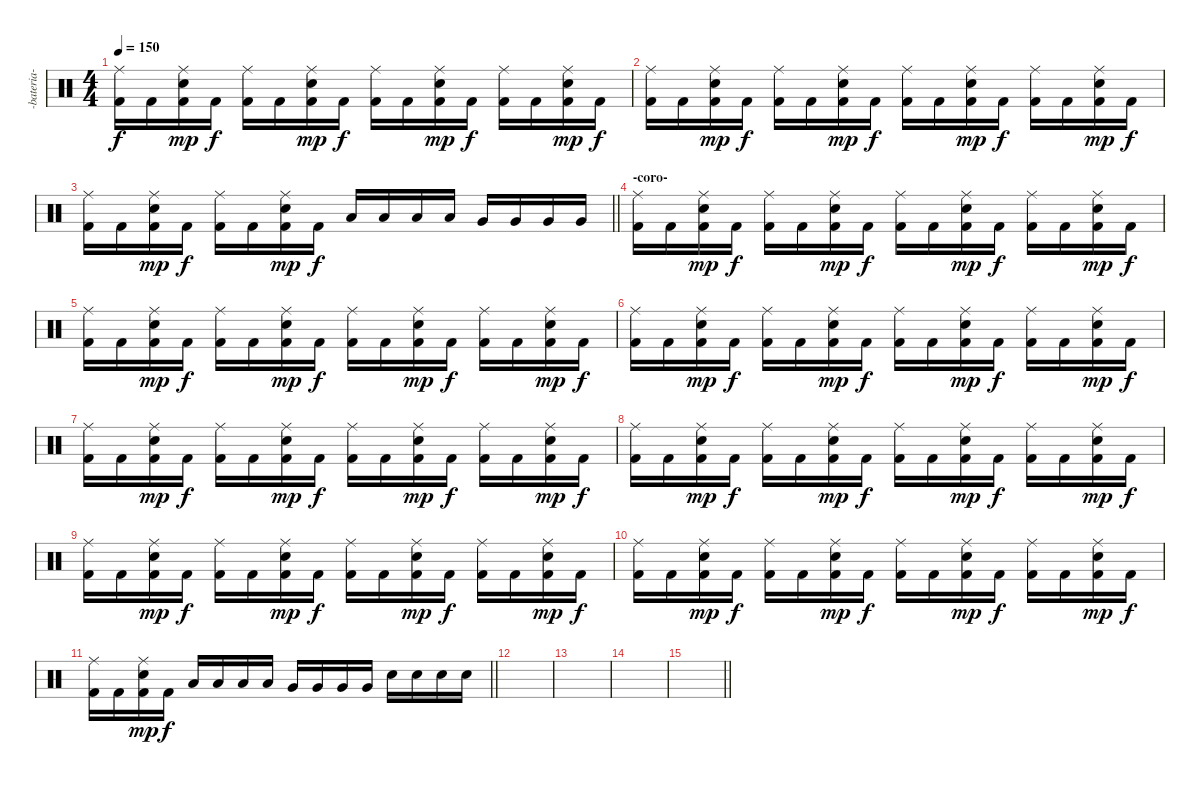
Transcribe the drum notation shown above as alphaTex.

\track ("-bateria-" "-bateria-") {instrument percussion}
\staff {score}
\articulation defaults
\ts (4 4)
\tempo 150
\clef neutral
\ks c
("Ride (middle)" "Kick (hit) 2").16{dy f} "Kick (hit) 2".16 ("Ride (middle)" "Electric Snare (hit)" "Kick (hit) 2").16{dy mp} "Kick (hit) 2".16{dy f} ("Ride (middle)" "Kick (hit) 2").16 "Kick (hit) 2".16 ("Ride (middle)" "Electric Snare (hit)" "Kick (hit) 2").16{dy mp} "Kick (hit) 2".16{dy f} ("Ride (middle)" "Kick (hit) 2").16 "Kick (hit) 2".16 ("Ride (middle)" "Electric Snare (hit)" "Kick (hit) 2").16{dy mp} "Kick (hit) 2".16{dy f} ("Ride (middle)" "Kick (hit) 2").16 "Kick (hit) 2".16 ("Ride (middle)" "Electric Snare (hit)" "Kick (hit) 2").16{dy mp} "Kick (hit) 2".16{dy f} |
("Ride (middle)" "Kick (hit) 2").16 "Kick (hit) 2".16 ("Ride (middle)" "Electric Snare (hit)" "Kick (hit) 2").16{dy mp} "Kick (hit) 2".16{dy f} ("Ride (middle)" "Kick (hit) 2").16 "Kick (hit) 2".16 ("Ride (middle)" "Electric Snare (hit)" "Kick (hit) 2").16{dy mp} "Kick (hit) 2".16{dy f} ("Ride (middle)" "Kick (hit) 2").16 "Kick (hit) 2".16 ("Ride (middle)" "Electric Snare (hit)" "Kick (hit) 2").16{dy mp} "Kick (hit) 2".16{dy f} ("Ride (middle)" "Kick (hit) 2").16 "Kick (hit) 2".16 ("Ride (middle)" "Electric Snare (hit)" "Kick (hit) 2").16{dy mp} "Kick (hit) 2".16{dy f} |
\barLineRight lightlight
("Ride (middle)" "Kick (hit) 2").16 "Kick (hit) 2".16 ("Ride (middle)" "Electric Snare (hit)" "Kick (hit) 2").16{dy mp} "Kick (hit) 2".16{dy f} ("Ride (middle)" "Kick (hit) 2").16 "Kick (hit) 2".16 ("Ride (middle)" "Electric Snare (hit)" "Kick (hit) 2").16{dy mp} "Kick (hit) 2".16{dy f} "Low Tom (hit)".16 "Low Tom (hit)".16 "Low Tom (hit)".16 "Low Tom (hit)".16 "Very Low Tom (hit)".16 "Very Low Tom (hit)".16 "Very Low Tom (hit)".16 "Very Low Tom (hit)".16 |
\section ("" "-coro-")
("Ride (middle)" "Kick (hit) 2").16 "Kick (hit) 2".16 ("Ride (middle)" "Electric Snare (hit)" "Kick (hit) 2").16{dy mp} "Kick (hit) 2".16{dy f} ("Ride (middle)" "Kick (hit) 2").16 "Kick (hit) 2".16 ("Ride (middle)" "Electric Snare (hit)" "Kick (hit) 2").16{dy mp} "Kick (hit) 2".16{dy f} ("Ride (middle)" "Kick (hit) 2").16 "Kick (hit) 2".16 ("Ride (middle)" "Electric Snare (hit)" "Kick (hit) 2").16{dy mp} "Kick (hit) 2".16{dy f} ("Ride (middle)" "Kick (hit) 2").16 "Kick (hit) 2".16 ("Ride (middle)" "Electric Snare (hit)" "Kick (hit) 2").16{dy mp} "Kick (hit) 2".16{dy f} |
("Ride (middle)" "Kick (hit) 2").16 "Kick (hit) 2".16 ("Ride (middle)" "Electric Snare (hit)" "Kick (hit) 2").16{dy mp} "Kick (hit) 2".16{dy f} ("Ride (middle)" "Kick (hit) 2").16 "Kick (hit) 2".16 ("Ride (middle)" "Electric Snare (hit)" "Kick (hit) 2").16{dy mp} "Kick (hit) 2".16{dy f} ("Ride (middle)" "Kick (hit) 2").16 "Kick (hit) 2".16 ("Ride (middle)" "Electric Snare (hit)" "Kick (hit) 2").16{dy mp} "Kick (hit) 2".16{dy f} ("Ride (middle)" "Kick (hit) 2").16 "Kick (hit) 2".16 ("Ride (middle)" "Electric Snare (hit)" "Kick (hit) 2").16{dy mp} "Kick (hit) 2".16{dy f} |
("Ride (middle)" "Kick (hit) 2").16 "Kick (hit) 2".16 ("Ride (middle)" "Electric Snare (hit)" "Kick (hit) 2").16{dy mp} "Kick (hit) 2".16{dy f} ("Ride (middle)" "Kick (hit) 2").16 "Kick (hit) 2".16 ("Ride (middle)" "Electric Snare (hit)" "Kick (hit) 2").16{dy mp} "Kick (hit) 2".16{dy f} ("Ride (middle)" "Kick (hit) 2").16 "Kick (hit) 2".16 ("Ride (middle)" "Electric Snare (hit)" "Kick (hit) 2").16{dy mp} "Kick (hit) 2".16{dy f} ("Ride (middle)" "Kick (hit) 2").16 "Kick (hit) 2".16 ("Ride (middle)" "Electric Snare (hit)" "Kick (hit) 2").16{dy mp} "Kick (hit) 2".16{dy f} |
("Ride (middle)" "Kick (hit) 2").16 "Kick (hit) 2".16 ("Ride (middle)" "Electric Snare (hit)" "Kick (hit) 2").16{dy mp} "Kick (hit) 2".16{dy f} ("Ride (middle)" "Kick (hit) 2").16 "Kick (hit) 2".16 ("Ride (middle)" "Electric Snare (hit)" "Kick (hit) 2").16{dy mp} "Kick (hit) 2".16{dy f} ("Ride (middle)" "Kick (hit) 2").16 "Kick (hit) 2".16 ("Ride (middle)" "Electric Snare (hit)" "Kick (hit) 2").16{dy mp} "Kick (hit) 2".16{dy f} ("Ride (middle)" "Kick (hit) 2").16 "Kick (hit) 2".16 ("Ride (middle)" "Electric Snare (hit)" "Kick (hit) 2").16{dy mp} "Kick (hit) 2".16{dy f} |
("Ride (middle)" "Kick (hit) 2").16 "Kick (hit) 2".16 ("Ride (middle)" "Electric Snare (hit)" "Kick (hit) 2").16{dy mp} "Kick (hit) 2".16{dy f} ("Ride (middle)" "Kick (hit) 2").16 "Kick (hit) 2".16 ("Ride (middle)" "Electric Snare (hit)" "Kick (hit) 2").16{dy mp} "Kick (hit) 2".16{dy f} ("Ride (middle)" "Kick (hit) 2").16 "Kick (hit) 2".16 ("Ride (middle)" "Electric Snare (hit)" "Kick (hit) 2").16{dy mp} "Kick (hit) 2".16{dy f} ("Ride (middle)" "Kick (hit) 2").16 "Kick (hit) 2".16 ("Ride (middle)" "Electric Snare (hit)" "Kick (hit) 2").16{dy mp} "Kick (hit) 2".16{dy f} |
("Ride (middle)" "Kick (hit) 2").16 "Kick (hit) 2".16 ("Ride (middle)" "Electric Snare (hit)" "Kick (hit) 2").16{dy mp} "Kick (hit) 2".16{dy f} ("Ride (middle)" "Kick (hit) 2").16 "Kick (hit) 2".16 ("Ride (middle)" "Electric Snare (hit)" "Kick (hit) 2").16{dy mp} "Kick (hit) 2".16{dy f} ("Ride (middle)" "Kick (hit) 2").16 "Kick (hit) 2".16 ("Ride (middle)" "Electric Snare (hit)" "Kick (hit) 2").16{dy mp} "Kick (hit) 2".16{dy f} ("Ride (middle)" "Kick (hit) 2").16 "Kick (hit) 2".16 ("Ride (middle)" "Electric Snare (hit)" "Kick (hit) 2").16{dy mp} "Kick (hit) 2".16{dy f} |
("Ride (middle)" "Kick (hit) 2").16 "Kick (hit) 2".16 ("Ride (middle)" "Electric Snare (hit)" "Kick (hit) 2").16{dy mp} "Kick (hit) 2".16{dy f} ("Ride (middle)" "Kick (hit) 2").16 "Kick (hit) 2".16 ("Ride (middle)" "Electric Snare (hit)" "Kick (hit) 2").16{dy mp} "Kick (hit) 2".16{dy f} ("Ride (middle)" "Kick (hit) 2").16 "Kick (hit) 2".16 ("Ride (middle)" "Electric Snare (hit)" "Kick (hit) 2").16{dy mp} "Kick (hit) 2".16{dy f} ("Ride (middle)" "Kick (hit) 2").16 "Kick (hit) 2".16 ("Ride (middle)" "Electric Snare (hit)" "Kick (hit) 2").16{dy mp} "Kick (hit) 2".16{dy f} |
\barLineRight lightlight
("Ride (middle)" "Kick (hit) 2").16 "Kick (hit) 2".16 ("Ride (middle)" "Electric Snare (hit)" "Kick (hit) 2").16{dy mp} "Kick (hit) 2".16{dy f} "Low Tom (hit)".16 "Low Tom (hit)".16 "Low Tom (hit)".16 "Low Tom (hit)".16 "Very Low Tom (hit)".16 "Very Low Tom (hit)".16 "Very Low Tom (hit)".16 "Very Low Tom (hit)".16 "Electric Snare (hit)".16 "Electric Snare (hit)".16 "Electric Snare (hit)".16 "Electric Snare (hit)".16 |
\section ("" "")
|
|
|
\barLineRight lightlight
